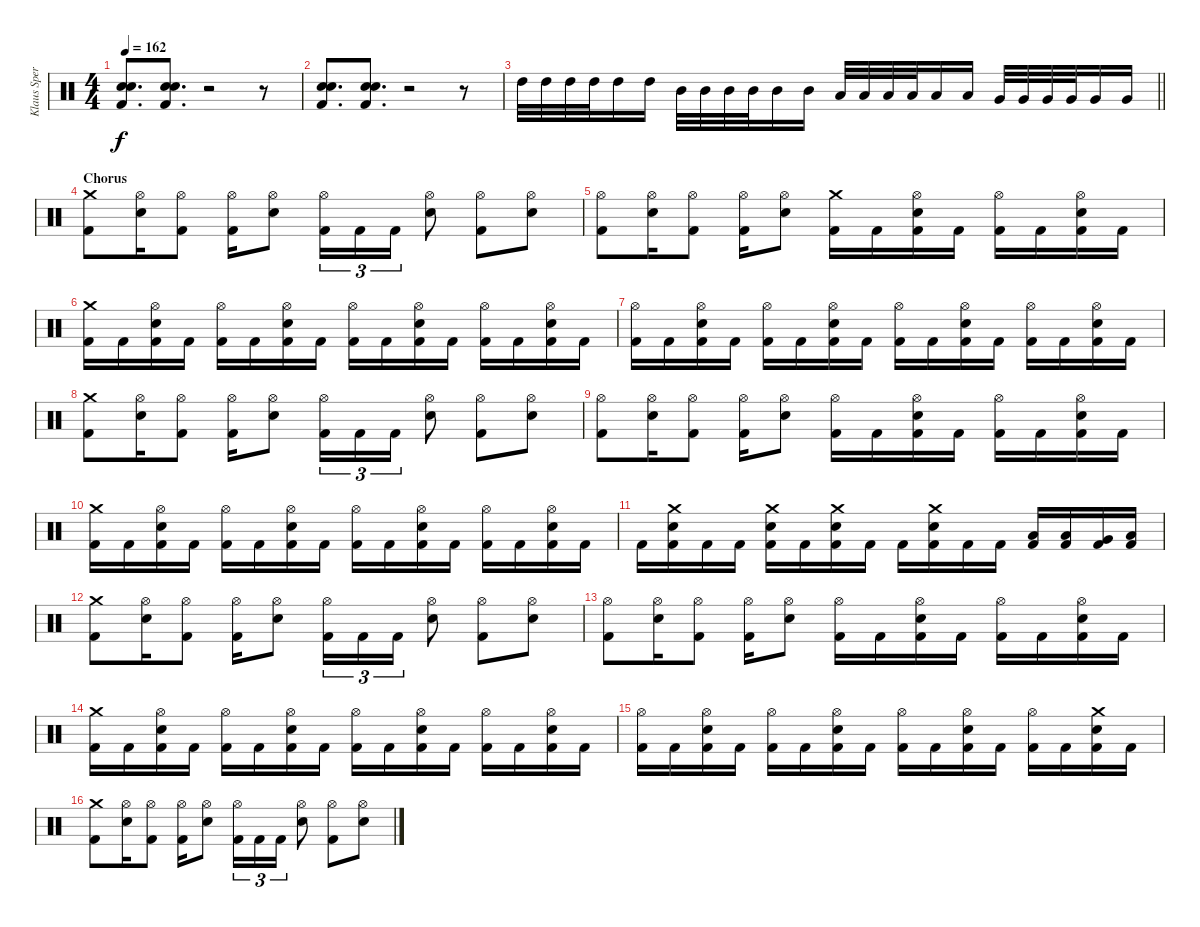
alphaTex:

\track ("Klaus Sperling" "Klaus Sper") {instrument percussion}
\staff {score}
\articulation defaults
\ts (4 4)
\tempo 162
\clef neutral
\ks c
("Electric Snare (hit)" "Electric Snare (hit)" "Kick (hit) 2").8{d dy f} ("Electric Snare (hit)" "Electric Snare (hit)" "Kick (hit) 2").8{d} r.2 r.8 |
("Electric Snare (hit)" "Electric Snare (hit)" "Kick (hit) 2").8{d} ("Electric Snare (hit)" "Electric Snare (hit)" "Kick (hit) 2").8{d} r.2 r.8 |
\barLineRight lightlight "High Tom (hit)".32 "High Tom (hit)".32 "High Tom (hit)".32 "High Tom (hit)".32 "High Tom (hit)".16 "High Tom (hit)".16 "Mid Tom (hit)".32 "Mid Tom (hit)".32 "Mid Tom (hit)".32 "Mid Tom (hit)".32 "Mid Tom (hit)".16 "Mid Tom (hit)".16 "Low Tom (hit)".32 "Low Tom (hit)".32 "Low Tom (hit)".32 "Low Tom (hit)".32 "Low Tom (hit)".16 "Low Tom (hit)".16 "Very Low Tom (hit)".32 "Very Low Tom (hit)".32 "Very Low Tom (hit)".32 "Very Low Tom (hit)".32 "Very Low Tom (hit)".16 "Very Low Tom (hit)".16
|
\section ("" "Chorus")
("Crash medium (hit)" "Kick (hit) 2").8 ("Hi-Hat (open)" "Electric Snare (hit)").16 ("Hi-Hat (open)" "Kick (hit) 2").8 ("Hi-Hat (open)" "Kick (hit) 2").16 ("Hi-Hat (open)" "Electric Snare (hit)").8 ("Hi-Hat (open)" "Kick (hit) 2").16{tu (3 2)} "Kick (hit) 2".16{tu (3 2)} "Kick (hit) 2".16{tu (3 2)} ("Hi-Hat (open)" "Electric Snare (hit)").8 ("Hi-Hat (open)" "Kick (hit) 2").8 ("Hi-Hat (open)" "Electric Snare (hit)").8 |
("Hi-Hat (open)" "Kick (hit) 2").8 ("Hi-Hat (open)" "Electric Snare (hit)").16 ("Hi-Hat (open)" "Kick (hit) 2").8 ("Hi-Hat (open)" "Kick (hit) 2").16 ("Hi-Hat (open)" "Electric Snare (hit)").8 ("Crash medium (hit)" "Kick (hit) 2").16 "Kick (hit) 2".16 ("Hi-Hat (open)" "Electric Snare (hit)" "Kick (hit) 2").16 "Kick (hit) 2".16 ("Hi-Hat (open)" "Kick (hit) 2").16 "Kick (hit) 2".16 ("Hi-Hat (open)" "Electric Snare (hit)" "Kick (hit) 2").16 "Kick (hit) 2".16 |
("Crash medium (hit)" "Kick (hit) 2").16 "Kick (hit) 2".16 ("Hi-Hat (open)" "Electric Snare (hit)" "Kick (hit) 2").16 "Kick (hit) 2".16 ("Hi-Hat (open)" "Kick (hit) 2").16 "Kick (hit) 2".16 ("Hi-Hat (open)" "Electric Snare (hit)" "Kick (hit) 2").16 "Kick (hit) 2".16 ("Hi-Hat (open)" "Kick (hit) 2").16 "Kick (hit) 2".16 ("Hi-Hat (open)" "Electric Snare (hit)" "Kick (hit) 2").16 "Kick (hit) 2".16 ("Hi-Hat (open)" "Kick (hit) 2").16 "Kick (hit) 2".16 ("Hi-Hat (open)" "Electric Snare (hit)" "Kick (hit) 2").16 "Kick (hit) 2".16 |
("Hi-Hat (open)" "Kick (hit) 2").16 "Kick (hit) 2".16 ("Hi-Hat (open)" "Electric Snare (hit)" "Kick (hit) 2").16 "Kick (hit) 2".16 ("Hi-Hat (open)" "Kick (hit) 2").16 "Kick (hit) 2".16 ("Hi-Hat (open)" "Electric Snare (hit)" "Kick (hit) 2").16 "Kick (hit) 2".16 ("Hi-Hat (open)" "Kick (hit) 2").16 "Kick (hit) 2".16 ("Hi-Hat (open)" "Electric Snare (hit)" "Kick (hit) 2").16 "Kick (hit) 2".16 ("Hi-Hat (open)" "Kick (hit) 2").16 "Kick (hit) 2".16 ("Hi-Hat (open)" "Electric Snare (hit)" "Kick (hit) 2").16 "Kick (hit) 2".16 |
("Crash medium (hit)" "Kick (hit) 2").8 ("Hi-Hat (open)" "Electric Snare (hit)").16 ("Hi-Hat (open)" "Kick (hit) 2").8 ("Hi-Hat (open)" "Kick (hit) 2").16 ("Hi-Hat (open)" "Electric Snare (hit)").8 ("Hi-Hat (open)" "Kick (hit) 2").16{tu (3 2)} "Kick (hit) 2".16{tu (3 2)} "Kick (hit) 2".16{tu (3 2)} ("Hi-Hat (open)" "Electric Snare (hit)").8 ("Hi-Hat (open)" "Kick (hit) 2").8 ("Hi-Hat (open)" "Electric Snare (hit)").8 |
("Hi-Hat (open)" "Kick (hit) 2").8 ("Hi-Hat (open)" "Electric Snare (hit)").16 ("Hi-Hat (open)" "Kick (hit) 2").8 ("Hi-Hat (open)" "Kick (hit) 2").16 ("Hi-Hat (open)" "Electric Snare (hit)").8 ("Hi-Hat (open)" "Kick (hit) 2").16 "Kick (hit) 2".16 ("Hi-Hat (open)" "Electric Snare (hit)" "Kick (hit) 2").16 "Kick (hit) 2".16 ("Hi-Hat (open)" "Kick (hit) 2").16 "Kick (hit) 2".16 ("Hi-Hat (open)" "Electric Snare (hit)" "Kick (hit) 2").16 "Kick (hit) 2".16 |
("Crash medium (hit)" "Kick (hit) 2").16 "Kick (hit) 2".16 ("Hi-Hat (open)" "Electric Snare (hit)" "Kick (hit) 2").16 "Kick (hit) 2".16 ("Hi-Hat (open)" "Kick (hit) 2").16 "Kick (hit) 2".16 ("Hi-Hat (open)" "Electric Snare (hit)" "Kick (hit) 2").16 "Kick (hit) 2".16 ("Hi-Hat (open)" "Kick (hit) 2").16 "Kick (hit) 2".16 ("Hi-Hat (open)" "Electric Snare (hit)" "Kick (hit) 2").16 "Kick (hit) 2".16 ("Hi-Hat (open)" "Kick (hit) 2").16 "Kick (hit) 2".16 ("Hi-Hat (open)" "Electric Snare (hit)" "Kick (hit) 2").16 "Kick (hit) 2".16 |
"Kick (hit) 2".16 ("Crash medium (hit)" "Electric Snare (hit)" "Kick (hit) 2").16 "Kick (hit) 2".16 "Kick (hit) 2".16 ("Crash medium (hit)" "Electric Snare (hit)" "Kick (hit) 2").16 "Kick (hit) 2".16 ("Crash medium (hit)" "Electric Snare (hit)" "Kick (hit) 2").16 "Kick (hit) 2".16 "Kick (hit) 2".16 ("Crash medium (hit)" "Electric Snare (hit)" "Kick (hit) 2").16 "Kick (hit) 2".16 "Kick (hit) 2".16 ("Low Tom (hit)" "Kick (hit) 2").16 ("Low Tom (hit)" "Kick (hit) 2").16 ("Very Low Tom (hit)" "Kick (hit) 2").16 ("Low Floor Tom (hit)" "Kick (hit) 2").16 |
("Crash medium (hit)" "Kick (hit) 2").8 ("Hi-Hat (open)" "Electric Snare (hit)").16 ("Hi-Hat (open)" "Kick (hit) 2").8 ("Hi-Hat (open)" "Kick (hit) 2").16 ("Hi-Hat (open)" "Electric Snare (hit)").8 ("Hi-Hat (open)" "Kick (hit) 2").16{tu (3 2)} "Kick (hit) 2".16{tu (3 2)} "Kick (hit) 2".16{tu (3 2)} ("Hi-Hat (open)" "Electric Snare (hit)").8 ("Hi-Hat (open)" "Kick (hit) 2").8 ("Hi-Hat (open)" "Electric Snare (hit)").8 |
("Hi-Hat (open)" "Kick (hit) 2").8 ("Hi-Hat (open)" "Electric Snare (hit)").16 ("Hi-Hat (open)" "Kick (hit) 2").8 ("Hi-Hat (open)" "Kick (hit) 2").16 ("Hi-Hat (open)" "Electric Snare (hit)").8 ("Hi-Hat (open)" "Kick (hit) 2").16 "Kick (hit) 2".16 ("Hi-Hat (open)" "Electric Snare (hit)" "Kick (hit) 2").16 "Kick (hit) 2".16 ("Hi-Hat (open)" "Kick (hit) 2").16 "Kick (hit) 2".16 ("Hi-Hat (open)" "Electric Snare (hit)" "Kick (hit) 2").16 "Kick (hit) 2".16 |
("Crash medium (hit)" "Kick (hit) 2").16 "Kick (hit) 2".16 ("Hi-Hat (open)" "Electric Snare (hit)" "Kick (hit) 2").16 "Kick (hit) 2".16 ("Hi-Hat (open)" "Kick (hit) 2").16 "Kick (hit) 2".16 ("Hi-Hat (open)" "Electric Snare (hit)" "Kick (hit) 2").16 "Kick (hit) 2".16 ("Hi-Hat (open)" "Kick (hit) 2").16 "Kick (hit) 2".16 ("Hi-Hat (open)" "Electric Snare (hit)" "Kick (hit) 2").16 "Kick (hit) 2".16 ("Hi-Hat (open)" "Kick (hit) 2").16 "Kick (hit) 2".16 ("Hi-Hat (open)" "Electric Snare (hit)" "Kick (hit) 2").16 "Kick (hit) 2".16 |
("Hi-Hat (open)" "Kick (hit) 2").16 "Kick (hit) 2".16 ("Hi-Hat (open)" "Electric Snare (hit)" "Kick (hit) 2").16 "Kick (hit) 2".16 ("Hi-Hat (open)" "Kick (hit) 2").16 "Kick (hit) 2".16 ("Hi-Hat (open)" "Electric Snare (hit)" "Kick (hit) 2").16 "Kick (hit) 2".16 ("Hi-Hat (open)" "Kick (hit) 2").16 "Kick (hit) 2".16 ("Hi-Hat (open)" "Electric Snare (hit)" "Kick (hit) 2").16 "Kick (hit) 2".16 ("Hi-Hat (open)" "Kick (hit) 2").16 "Kick (hit) 2".16 ("Crash medium (hit)" "Electric Snare (hit)" "Kick (hit) 2").16 "Kick (hit) 2".16 |
("Crash medium (hit)" "Kick (hit) 2").8 ("Hi-Hat (open)" "Electric Snare (hit)").16 ("Hi-Hat (open)" "Kick (hit) 2").8 ("Hi-Hat (open)" "Kick (hit) 2").16 ("Hi-Hat (open)" "Electric Snare (hit)").8 ("Hi-Hat (open)" "Kick (hit) 2").16{tu (3 2)} "Kick (hit) 2".16{tu (3 2)} "Kick (hit) 2".16{tu (3 2)} ("Hi-Hat (open)" "Electric Snare (hit)").8 ("Hi-Hat (open)" "Kick (hit) 2").8 ("Hi-Hat (open)" "Electric Snare (hit)").8
